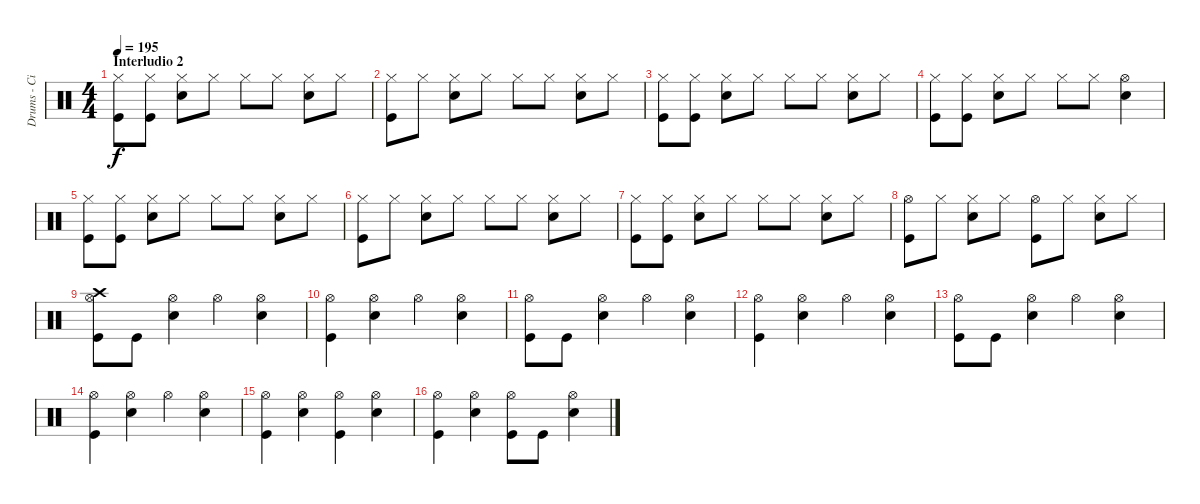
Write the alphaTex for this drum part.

\track ("Drums - Ciro" "Drums - Ci") {instrument percussion}
\staff {score}
\articulation defaults
\ts (4 4)
\section ("" "Interludio 2")
\tempo 195
\clef neutral
\ks c
("Hi-Hat (closed)" "Kick (hit)").8{dy f} ("Hi-Hat (closed)" "Kick (hit)").8 ("Hi-Hat (closed)" "Electric Snare (hit)").8 "Hi-Hat (closed)".8 "Hi-Hat (closed)".8 "Hi-Hat (closed)".8 ("Hi-Hat (closed)" "Electric Snare (hit)").8 "Hi-Hat (closed)".8 |
("Hi-Hat (closed)" "Kick (hit)").8 "Hi-Hat (closed)".8 ("Hi-Hat (closed)" "Electric Snare (hit)").8 "Hi-Hat (closed)".8 "Hi-Hat (closed)".8 "Hi-Hat (closed)".8 ("Hi-Hat (closed)" "Electric Snare (hit)").8 "Hi-Hat (closed)".8 |
("Hi-Hat (closed)" "Kick (hit)").8 ("Hi-Hat (closed)" "Kick (hit)").8 ("Hi-Hat (closed)" "Electric Snare (hit)").8 "Hi-Hat (closed)".8 "Hi-Hat (closed)".8 "Hi-Hat (closed)".8 ("Hi-Hat (closed)" "Electric Snare (hit)").8 "Hi-Hat (closed)".8 |
("Hi-Hat (closed)" "Kick (hit)").8 ("Hi-Hat (closed)" "Kick (hit)").8 ("Hi-Hat (closed)" "Electric Snare (hit)").8 "Hi-Hat (closed)".8 "Hi-Hat (closed)".8 "Hi-Hat (closed)".8 ("Hi-Hat (open)" "Electric Snare (hit)").4 |
("Hi-Hat (closed)" "Kick (hit)").8 ("Hi-Hat (closed)" "Kick (hit)").8 ("Hi-Hat (closed)" "Electric Snare (hit)").8 "Hi-Hat (closed)".8 "Hi-Hat (closed)".8 "Hi-Hat (closed)".8 ("Hi-Hat (closed)" "Electric Snare (hit)").8 "Hi-Hat (closed)".8 |
("Hi-Hat (closed)" "Kick (hit)").8 "Hi-Hat (closed)".8 ("Hi-Hat (closed)" "Electric Snare (hit)").8 "Hi-Hat (closed)".8 "Hi-Hat (closed)".8 "Hi-Hat (closed)".8 ("Hi-Hat (closed)" "Electric Snare (hit)").8 "Hi-Hat (closed)".8 |
("Hi-Hat (closed)" "Kick (hit)").8 ("Hi-Hat (closed)" "Kick (hit)").8 ("Hi-Hat (closed)" "Electric Snare (hit)").8 "Hi-Hat (closed)".8 "Hi-Hat (closed)".8 "Hi-Hat (closed)".8 ("Hi-Hat (closed)" "Electric Snare (hit)").8 "Hi-Hat (closed)".8 |
("Hi-Hat (open)" "Kick (hit)").8 "Hi-Hat (closed)".8 ("Hi-Hat (closed)" "Electric Snare (hit)").8 "Hi-Hat (closed)".8 ("Hi-Hat (open)" "Kick (hit)").8 "Hi-Hat (closed)".8 ("Hi-Hat (closed)" "Electric Snare (hit)").8 "Hi-Hat (closed)".8 |
("Hi-Hat (open)" "Crash high (hit)" "Kick (hit)").8 "Kick (hit)".8 ("Hi-Hat (open)" "Electric Snare (hit)").4 "Hi-Hat (open)".4 ("Hi-Hat (open)" "Electric Snare (hit)").4 |
("Hi-Hat (open)" "Kick (hit)").4 ("Hi-Hat (open)" "Electric Snare (hit)").4 "Hi-Hat (open)".4 ("Hi-Hat (open)" "Electric Snare (hit)").4 |
("Hi-Hat (open)" "Kick (hit)").8 "Kick (hit)".8 ("Hi-Hat (open)" "Electric Snare (hit)").4 "Hi-Hat (open)".4 ("Hi-Hat (open)" "Electric Snare (hit)").4 |
("Hi-Hat (open)" "Kick (hit)").4 ("Hi-Hat (open)" "Electric Snare (hit)").4 "Hi-Hat (open)".4 ("Hi-Hat (open)" "Electric Snare (hit)").4 |
("Hi-Hat (open)" "Kick (hit)").8 "Kick (hit)".8 ("Hi-Hat (open)" "Electric Snare (hit)").4 "Hi-Hat (open)".4 ("Hi-Hat (open)" "Electric Snare (hit)").4 |
("Hi-Hat (open)" "Kick (hit)").4 ("Hi-Hat (open)" "Electric Snare (hit)").4 "Hi-Hat (open)".4 ("Hi-Hat (open)" "Electric Snare (hit)").4 |
("Hi-Hat (open)" "Kick (hit)").4 ("Hi-Hat (open)" "Electric Snare (hit)").4 ("Hi-Hat (open)" "Kick (hit)").4 ("Hi-Hat (open)" "Electric Snare (hit)").4 |
("Hi-Hat (open)" "Kick (hit)").4 ("Hi-Hat (open)" "Electric Snare (hit)").4 ("Hi-Hat (open)" "Kick (hit)").8 "Kick (hit)".8 ("Hi-Hat (open)" "Electric Snare (hit)").4
